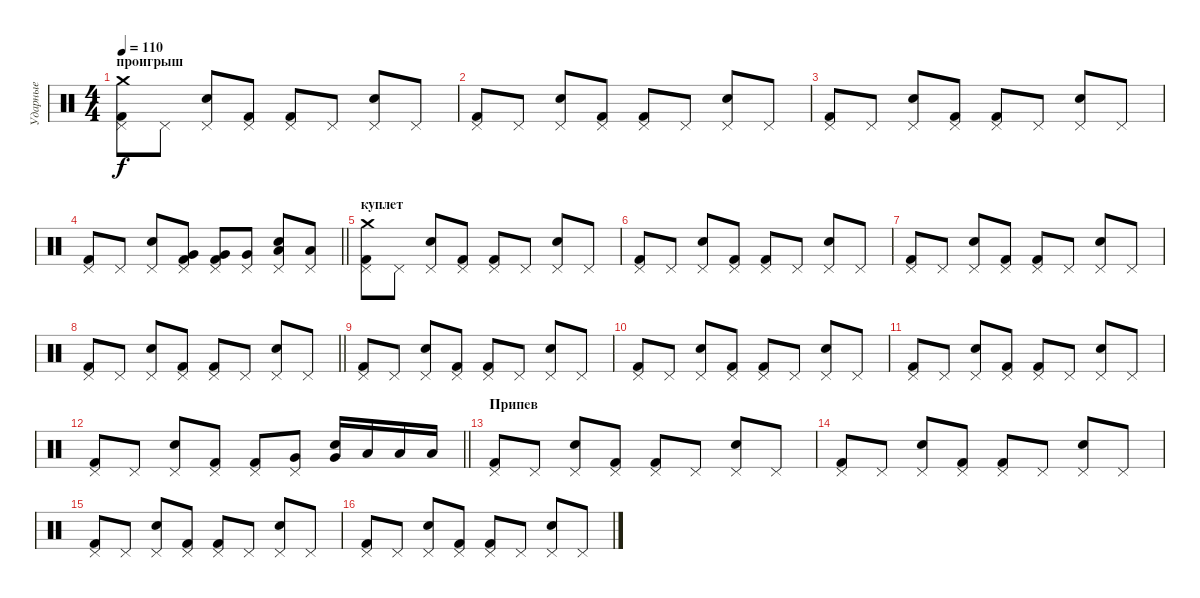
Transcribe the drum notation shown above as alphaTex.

\track ("Ударные" "Ударные") {instrument percussion}
\staff {score}
\articulation defaults
\ts (4 4)
\section ("" "проигрыш")
\tempo 110
\clef neutral
\ks c
("Crash medium (hit)" "Pedal Hi-Hat (hit)" "Kick (hit) 2").8{dy f} "Pedal Hi-Hat (hit)".8 ("Pedal Hi-Hat (hit)" "Electric Snare (hit)").8 ("Pedal Hi-Hat (hit)" "Kick (hit) 2").8 ("Pedal Hi-Hat (hit)" "Kick (hit) 2").8 "Pedal Hi-Hat (hit)".8 ("Pedal Hi-Hat (hit)" "Electric Snare (hit)").8 "Pedal Hi-Hat (hit)".8 |
("Pedal Hi-Hat (hit)" "Kick (hit) 2").8 "Pedal Hi-Hat (hit)".8 ("Pedal Hi-Hat (hit)" "Electric Snare (hit)").8 ("Pedal Hi-Hat (hit)" "Kick (hit) 2").8 ("Pedal Hi-Hat (hit)" "Kick (hit) 2").8 "Pedal Hi-Hat (hit)".8 ("Pedal Hi-Hat (hit)" "Electric Snare (hit)").8 "Pedal Hi-Hat (hit)".8 |
("Pedal Hi-Hat (hit)" "Kick (hit) 2").8 "Pedal Hi-Hat (hit)".8 ("Pedal Hi-Hat (hit)" "Electric Snare (hit)").8 ("Pedal Hi-Hat (hit)" "Kick (hit) 2").8 ("Pedal Hi-Hat (hit)" "Kick (hit) 2").8 "Pedal Hi-Hat (hit)".8 ("Pedal Hi-Hat (hit)" "Electric Snare (hit)").8 "Pedal Hi-Hat (hit)".8 |
\barLineRight lightlight
("Pedal Hi-Hat (hit)" "Kick (hit) 2").8 "Pedal Hi-Hat (hit)".8 ("Pedal Hi-Hat (hit)" "Electric Snare (hit)").8 ("Pedal Hi-Hat (hit)" "Very Low Tom (hit)" "Kick (hit) 2").8 ("Pedal Hi-Hat (hit)" "Very Low Tom (hit)" "Kick (hit) 2").8 ("Pedal Hi-Hat (hit)" "Very Low Tom (hit)").8 ("Pedal Hi-Hat (hit)" "Low Floor Tom (hit)" "Electric Snare (hit)").8 ("Pedal Hi-Hat (hit)" "Low Floor Tom (hit)").8 |
\section ("" "куплет")
("Crash medium (hit)" "Pedal Hi-Hat (hit)" "Kick (hit) 2").8 "Pedal Hi-Hat (hit)".8 ("Pedal Hi-Hat (hit)" "Electric Snare (hit)").8 ("Pedal Hi-Hat (hit)" "Kick (hit) 2").8 ("Pedal Hi-Hat (hit)" "Kick (hit) 2").8 "Pedal Hi-Hat (hit)".8 ("Pedal Hi-Hat (hit)" "Electric Snare (hit)").8 "Pedal Hi-Hat (hit)".8 |
("Pedal Hi-Hat (hit)" "Kick (hit) 2").8 "Pedal Hi-Hat (hit)".8 ("Pedal Hi-Hat (hit)" "Electric Snare (hit)").8 ("Pedal Hi-Hat (hit)" "Kick (hit) 2").8 ("Pedal Hi-Hat (hit)" "Kick (hit) 2").8 "Pedal Hi-Hat (hit)".8 ("Pedal Hi-Hat (hit)" "Electric Snare (hit)").8 "Pedal Hi-Hat (hit)".8 |
("Pedal Hi-Hat (hit)" "Kick (hit) 2").8 "Pedal Hi-Hat (hit)".8 ("Pedal Hi-Hat (hit)" "Electric Snare (hit)").8 ("Pedal Hi-Hat (hit)" "Kick (hit) 2").8 ("Pedal Hi-Hat (hit)" "Kick (hit) 2").8 "Pedal Hi-Hat (hit)".8 ("Pedal Hi-Hat (hit)" "Electric Snare (hit)").8 "Pedal Hi-Hat (hit)".8 |
\barLineRight lightlight
("Pedal Hi-Hat (hit)" "Kick (hit) 2").8 "Pedal Hi-Hat (hit)".8 ("Pedal Hi-Hat (hit)" "Electric Snare (hit)").8 ("Pedal Hi-Hat (hit)" "Kick (hit) 2").8 ("Pedal Hi-Hat (hit)" "Kick (hit) 2").8 "Pedal Hi-Hat (hit)".8 ("Pedal Hi-Hat (hit)" "Electric Snare (hit)").8 "Pedal Hi-Hat (hit)".8 |
("Pedal Hi-Hat (hit)" "Kick (hit) 2").8 "Pedal Hi-Hat (hit)".8 ("Pedal Hi-Hat (hit)" "Electric Snare (hit)").8 ("Pedal Hi-Hat (hit)" "Kick (hit) 2").8 ("Pedal Hi-Hat (hit)" "Kick (hit) 2").8 "Pedal Hi-Hat (hit)".8 ("Pedal Hi-Hat (hit)" "Electric Snare (hit)").8 "Pedal Hi-Hat (hit)".8 |
("Pedal Hi-Hat (hit)" "Kick (hit) 2").8 "Pedal Hi-Hat (hit)".8 ("Pedal Hi-Hat (hit)" "Electric Snare (hit)").8 ("Pedal Hi-Hat (hit)" "Kick (hit) 2").8 ("Pedal Hi-Hat (hit)" "Kick (hit) 2").8 "Pedal Hi-Hat (hit)".8 ("Pedal Hi-Hat (hit)" "Electric Snare (hit)").8 "Pedal Hi-Hat (hit)".8 |
("Pedal Hi-Hat (hit)" "Kick (hit) 2").8 "Pedal Hi-Hat (hit)".8 ("Pedal Hi-Hat (hit)" "Electric Snare (hit)").8 ("Pedal Hi-Hat (hit)" "Kick (hit) 2").8 ("Pedal Hi-Hat (hit)" "Kick (hit) 2").8 "Pedal Hi-Hat (hit)".8 ("Pedal Hi-Hat (hit)" "Electric Snare (hit)").8 "Pedal Hi-Hat (hit)".8 |
\barLineRight lightlight
("Pedal Hi-Hat (hit)" "Kick (hit) 2").8 "Pedal Hi-Hat (hit)".8 ("Pedal Hi-Hat (hit)" "Electric Snare (hit)").8 ("Pedal Hi-Hat (hit)" "Kick (hit) 2").8 ("Pedal Hi-Hat (hit)" "Kick (hit) 2").8 ("Pedal Hi-Hat (hit)" "Very Low Tom (hit)").8 ("Very Low Tom (hit)" "Electric Snare (hit)").16 "Low Floor Tom (hit)".16 "Low Floor Tom (hit)".16 "Low Floor Tom (hit)".16 |
\section ("" "Припев")
("Pedal Hi-Hat (hit)" "Kick (hit) 2").8 "Pedal Hi-Hat (hit)".8 ("Pedal Hi-Hat (hit)" "Electric Snare (hit)").8 ("Pedal Hi-Hat (hit)" "Kick (hit) 2").8 ("Pedal Hi-Hat (hit)" "Kick (hit) 2").8 "Pedal Hi-Hat (hit)".8 ("Pedal Hi-Hat (hit)" "Electric Snare (hit)").8 "Pedal Hi-Hat (hit)".8 |
("Pedal Hi-Hat (hit)" "Kick (hit) 2").8 "Pedal Hi-Hat (hit)".8 ("Pedal Hi-Hat (hit)" "Electric Snare (hit)").8 ("Pedal Hi-Hat (hit)" "Kick (hit) 2").8 ("Pedal Hi-Hat (hit)" "Kick (hit) 2").8 "Pedal Hi-Hat (hit)".8 ("Pedal Hi-Hat (hit)" "Electric Snare (hit)").8 "Pedal Hi-Hat (hit)".8 |
("Pedal Hi-Hat (hit)" "Kick (hit) 2").8 "Pedal Hi-Hat (hit)".8 ("Pedal Hi-Hat (hit)" "Electric Snare (hit)").8 ("Pedal Hi-Hat (hit)" "Kick (hit) 2").8 ("Pedal Hi-Hat (hit)" "Kick (hit) 2").8 "Pedal Hi-Hat (hit)".8 ("Pedal Hi-Hat (hit)" "Electric Snare (hit)").8 "Pedal Hi-Hat (hit)".8 |
("Pedal Hi-Hat (hit)" "Kick (hit) 2").8 "Pedal Hi-Hat (hit)".8 ("Pedal Hi-Hat (hit)" "Electric Snare (hit)").8 ("Pedal Hi-Hat (hit)" "Kick (hit) 2").8 ("Pedal Hi-Hat (hit)" "Kick (hit) 2").8 "Pedal Hi-Hat (hit)".8 ("Pedal Hi-Hat (hit)" "Electric Snare (hit)").8 "Pedal Hi-Hat (hit)".8
